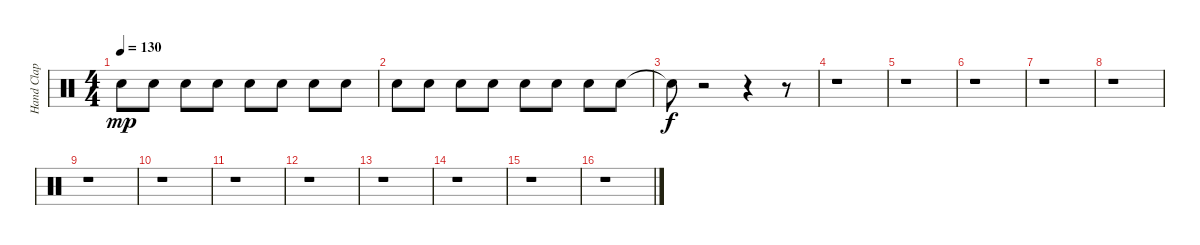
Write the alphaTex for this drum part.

\track ("Hand Clap" "Hand Clap") {instrument percussion}
\staff {score}
\articulation defaults
\ts (4 4)
\tempo 130
\clef neutral
\ks c "Hand Clap (hit)".8{dy mp} "Hand Clap (hit)".8 "Hand Clap (hit)".8 "Hand Clap (hit)".8 "Hand Clap (hit)".8 "Hand Clap (hit)".8 "Hand Clap (hit)".8 "Hand Clap (hit)".8
|
"Hand Clap (hit)".8 "Hand Clap (hit)".8 "Hand Clap (hit)".8 "Hand Clap (hit)".8 "Hand Clap (hit)".8 "Hand Clap (hit)".8 "Hand Clap (hit)".8 "Hand Clap (hit)".8 |
"Snare (hit)"{t}.8{dy f} r.2 r.4 r.8 |
r.1 |
r.1 |
r.1 |
r.1 |
r.1 |
r.1 |
r.1 |
r.1 |
r.1 |
r.1 |
r.1 |
r.1 |
r.1
